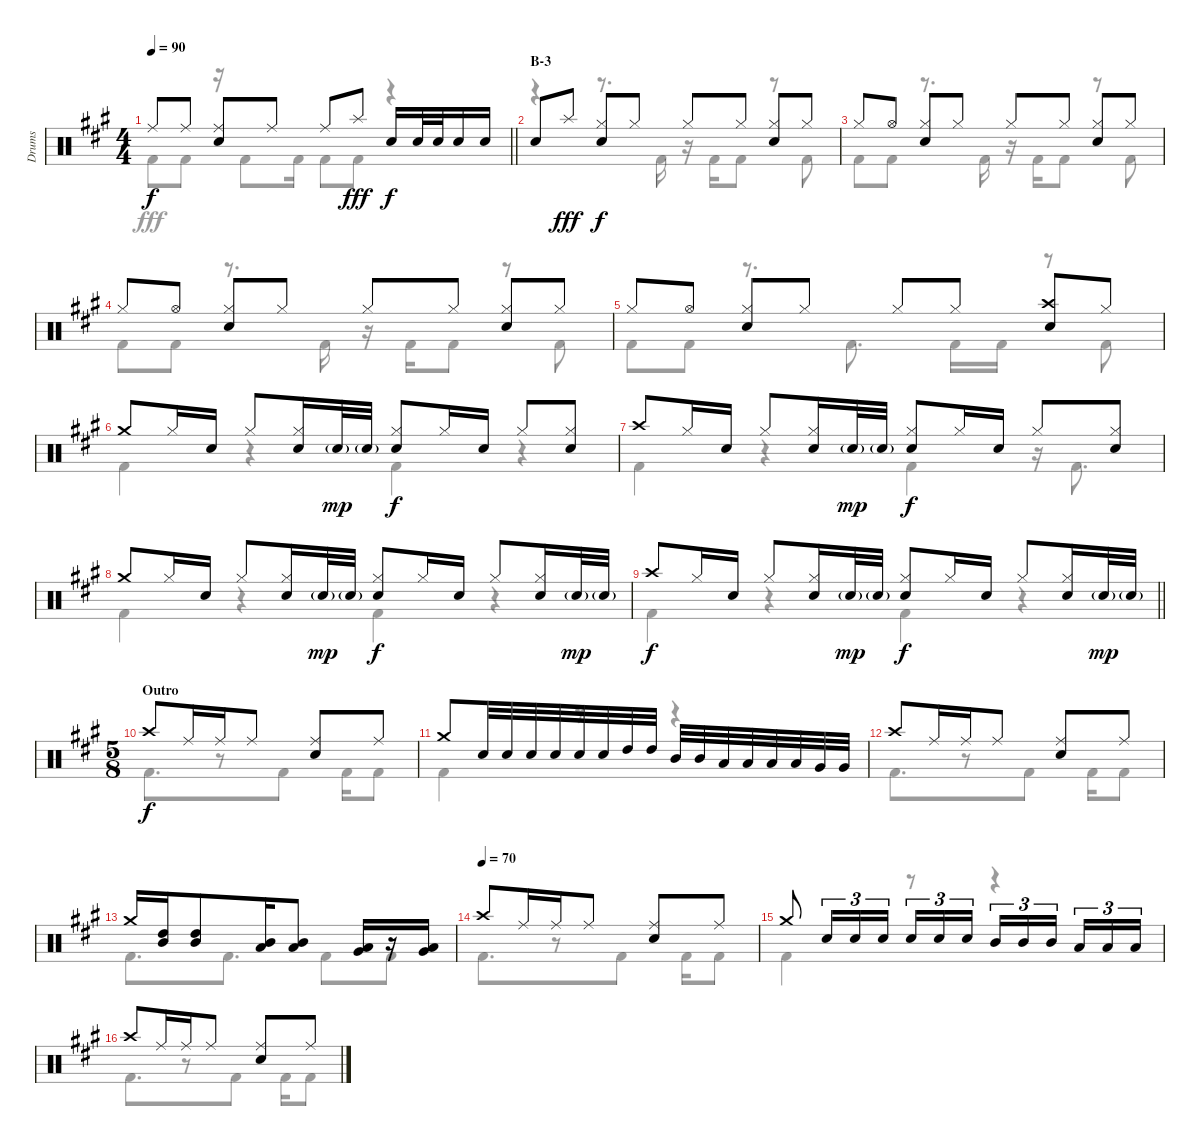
\track ("Drums" "Drums") {instrument percussion}
\staff {score}
\articulation defaults
\voice
\ts (4 4)
\tempo 90
\clef neutral
\barLineRight lightlight
\ks a "Ride (middle)".8{dy f} "Ride (middle)".8
("Ride (middle)" "Snare (hit) 2").8 "Ride (middle)".8 "Ride (middle)".8 "Splash (hit)".8{dy fff} "Snare (hit) 2".16{dy f} "Snare (hit) 2".32 "Snare (hit) 2".32 "Snare (hit) 2".16 "Snare (hit) 2".16 |
\section ("" "B-3")
"Snare (hit) 2".8 "Splash (hit)".8{dy fff} ("Hi-Hat (closed)" "Snare (hit) 2").8{dy f} "Hi-Hat (closed)".8 "Hi-Hat (closed)".8 "Hi-Hat (closed)".8 ("Hi-Hat (closed)" "Snare (hit) 2").8 "Hi-Hat (closed)".8 |
"Hi-Hat (closed)".8 "Hi-Hat (open)".8 ("Hi-Hat (closed)" "Snare (hit) 2").8 "Hi-Hat (closed)".8 "Hi-Hat (closed)".8 "Hi-Hat (closed)".8 ("Hi-Hat (closed)" "Snare (hit) 2").8 "Hi-Hat (closed)".8 |
"Hi-Hat (closed)".8 "Hi-Hat (open)".8 ("Hi-Hat (closed)" "Snare (hit) 2").8 "Hi-Hat (closed)".8 "Hi-Hat (closed)".8 "Hi-Hat (closed)".8 ("Hi-Hat (closed)" "Snare (hit) 2").8 "Hi-Hat (closed)".8 |
"Hi-Hat (closed)".8 "Hi-Hat (open)".8 ("Hi-Hat (closed)" "Snare (hit) 2").8 "Hi-Hat (closed)".8 "Hi-Hat (closed)".8 "Hi-Hat (closed)".8 ("Crash high (hit)" "Snare (hit) 2").8 "Hi-Hat (closed)".8 |
"Crash medium (hit)".8 "Hi-Hat (closed)".16 "Snare (hit) 2".16 "Hi-Hat (closed)".8 ("Hi-Hat (closed)" "Snare (hit) 2").16 "Snare (hit) 2"{g}.32{dy mp} "Snare (hit) 2"{g}.32 ("Hi-Hat (closed)" "Snare (hit) 2").8{dy f} "Hi-Hat (closed)".16 "Snare (hit) 2".16 "Hi-Hat (closed)".8 ("Hi-Hat (closed)" "Snare (hit) 2").8 |
"Crash high (hit)".8 "Hi-Hat (closed)".16 "Snare (hit) 2".16 "Hi-Hat (closed)".8 ("Hi-Hat (closed)" "Snare (hit) 2").16 "Snare (hit) 2"{g}.32{dy mp} "Snare (hit) 2"{g}.32 ("Hi-Hat (closed)" "Snare (hit) 2").8{dy f} "Hi-Hat (closed)".16 "Snare (hit) 2".16 "Hi-Hat (closed)".8 ("Hi-Hat (closed)" "Snare (hit) 2").8 |
"Crash medium (hit)".8 "Hi-Hat (closed)".16 "Snare (hit) 2".16 "Hi-Hat (closed)".8 ("Hi-Hat (closed)" "Snare (hit) 2").16 "Snare (hit) 2"{g}.32{dy mp} "Snare (hit) 2"{g}.32 ("Hi-Hat (closed)" "Snare (hit) 2").8{dy f} "Hi-Hat (closed)".16 "Snare (hit) 2".16 "Hi-Hat (closed)".8 ("Hi-Hat (closed)" "Snare (hit) 2").16 "Snare (hit) 2"{g}.32{dy mp} "Snare (hit) 2"{g}.32 |
\barLineRight lightlight "Crash high (hit)".8{dy f} "Hi-Hat (closed)".16 "Snare (hit) 2".16 "Hi-Hat (closed)".8
("Hi-Hat (closed)" "Snare (hit) 2").16 "Snare (hit) 2"{g}.32{dy mp} "Snare (hit) 2"{g}.32 ("Hi-Hat (closed)" "Snare (hit) 2").8{dy f} "Hi-Hat (closed)".16 "Snare (hit) 2".16 "Hi-Hat (closed)".8 ("Hi-Hat (closed)" "Snare (hit) 2").16 "Snare (hit) 2"{g}.32{dy mp} "Snare (hit) 2"{g}.32 |
\ts (5 8)
\section ("" "Outro")
"Crash high (hit)".8{dy f} "Ride (middle)".16 "Ride (middle)".16 "Ride (middle)".8 ("Ride (middle)" "Snare (hit) 2").8 "Ride (middle)".8 |
"Crash medium (hit)".8 "Snare (hit) 2".32 "Snare (hit) 2".32 "Snare (hit) 2".32 "Snare (hit) 2".32 "Snare (hit) 2".32 "Snare (hit) 2".32 "High Tom (hit)".32 "High Tom (hit)".32 "Mid Tom (hit)".32 "Mid Tom (hit)".32 "Low Tom (hit)".32 "Low Tom (hit)".32 "Low Tom (hit)".32 "Low Tom (hit)".32 "Very Low Tom (hit)".32 "Very Low Tom (hit)".32 |
"Crash high (hit)".8 "Ride (middle)".16 "Ride (middle)".16 "Ride (middle)".8 ("Ride (middle)" "Snare (hit) 2").8 "Ride (middle)".8 |
"Crash medium (hit)".16 ("High Tom (hit)" "Mid Tom (hit)").16 ("High Tom (hit)" "Mid Tom (hit)").8 ("Mid Tom (hit)" "Low Tom (hit)").16 ("Mid Tom (hit)" "Low Tom (hit)").8 ("Low Tom (hit)" "Very Low Tom (hit)").16 r.16 ("Low Tom (hit)" "Very Low Tom (hit)").16 |
\tempo (70)
"Crash high (hit)".8 "Ride (middle)".16 "Ride (middle)".16 "Ride (middle)".8 ("Ride (middle)" "Snare (hit) 2").8 "Ride (middle)".8 |
"Crash medium (hit)".8 "Snare (hit) 2".16{tu (3 2)} "Snare (hit) 2".16{tu (3 2)} "Snare (hit) 2".16{tu (3 2)} "Snare (hit) 2".16{tu (3 2)} "Snare (hit) 2".16{tu (3 2)} "Snare (hit) 2".16{tu (3 2)} "Mid Tom (hit)".16{tu (3 2)} "Mid Tom (hit)".16{tu (3 2)} "Mid Tom (hit)".16{tu (3 2)} "Low Tom (hit)".16{tu (3 2)} "Low Tom (hit)".16{tu (3 2)} "Low Tom (hit)".16{tu (3 2)} |
"Crash high (hit)".8 "Ride (middle)".16 "Ride (middle)".16 "Ride (middle)".8 ("Ride (middle)" "Snare (hit) 2").8 "Ride (middle)".8
\voice
\clef neutral
\ottava regular
\simile none
\barLineRight lightlight
\ks a "Kick (hit) 2".8{dy fff} "Kick (hit) 2".8
r.16 "Kick (hit) 2".8 "Kick (hit) 2".16 "Kick (hit) 2".8 "Kick (hit) 2".8 r.4 |
r.4 r.8{d} "Kick (hit) 2".16 r.16 "Kick (hit) 2".16 "Kick (hit) 2".8 r.8 "Kick (hit) 2".8 |
"Kick (hit) 2".8 "Kick (hit) 2".8 r.8{d} "Kick (hit) 2".16 r.16 "Kick (hit) 2".16 "Kick (hit) 2".8 r.8 "Kick (hit) 2".8 |
"Kick (hit) 2".8 "Kick (hit) 2".8 r.8{d} "Kick (hit) 2".16 r.16 "Kick (hit) 2".16 "Kick (hit) 2".8 r.8 "Kick (hit) 2".8 |
"Kick (hit) 2".8 "Kick (hit) 2".8 r.8{d} "Kick (hit) 2".8{d} "Kick (hit) 2".16 "Kick (hit) 2".16 r.8 "Kick (hit) 2".8 |
"Kick (hit) 2".4 r.4 "Kick (hit) 2".4 r.4 |
"Kick (hit) 2".4 r.4 "Kick (hit) 2".4 r.16 "Kick (hit) 2".8{d} |
"Kick (hit) 2".4 r.4 "Kick (hit) 2".4 r.4 |
\barLineRight lightlight "Kick (hit) 2".4
r.4 "Kick (hit) 2".4 r.4 |
"Kick (hit) 2".8{d} r.8 "Kick (hit) 2".8 "Kick (hit) 2".16 "Kick (hit) 2".8 |
"Kick (hit) 2".4 r.8 r.4 |
"Kick (hit) 2".8{d} r.8 "Kick (hit) 2".8 "Kick (hit) 2".16 "Kick (hit) 2".8 |
"Kick (hit) 2".8{d} "Kick (hit) 2".8{d} "Kick (hit) 2".8 "Kick (hit) 2".8 |
"Kick (hit) 2".8{d} r.8 "Kick (hit) 2".8 "Kick (hit) 2".16 "Kick (hit) 2".8 |
"Kick (hit) 2".4 r.8 r.4 |
"Kick (hit) 2".8{d} r.8 "Kick (hit) 2".8 "Kick (hit) 2".16 "Kick (hit) 2".8
